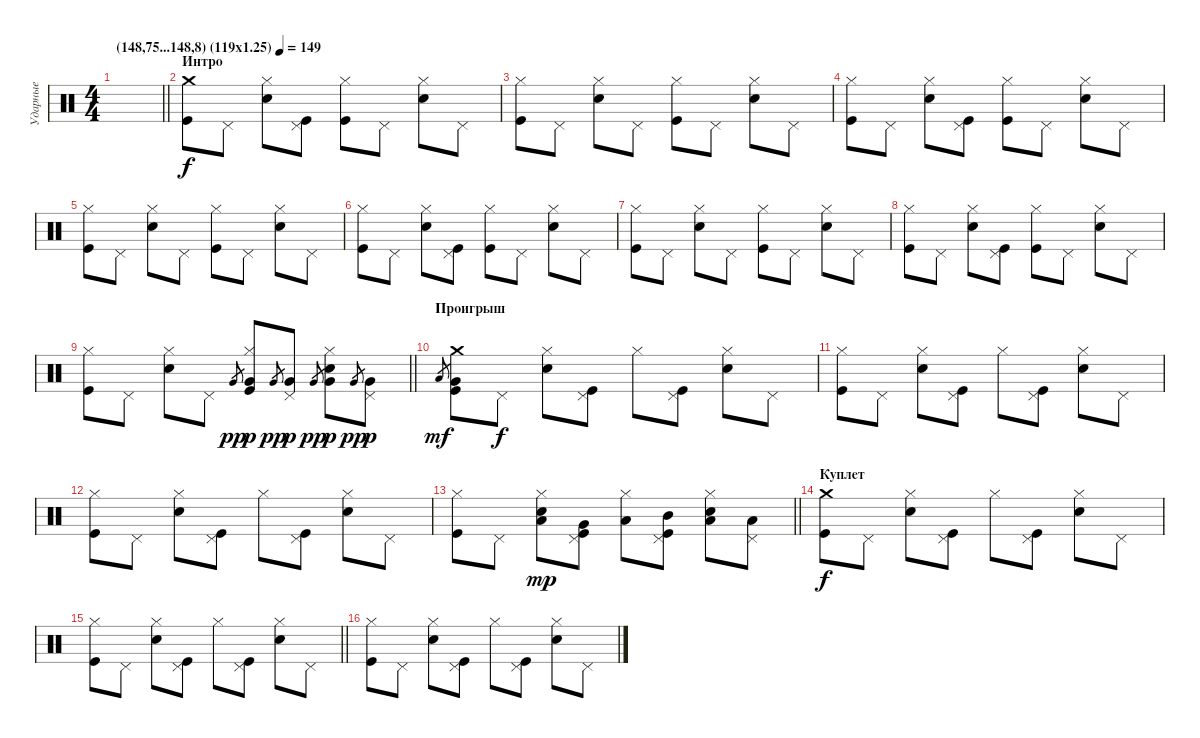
\track ("Ударные" "Ударные") {instrument percussion}
\staff {score}
\articulation defaults
\ts (4 4)
\tempo (149 "(148,75...148,8) (119x1.25)")
\clef neutral
\barLineRight lightlight
\ks c
|
\section ("" "Интро")
("Crash medium (hit)" "Kick (hit)").8 "Pedal Hi-Hat (hit)".8 ("Hi-Hat (closed)" "Snare (hit) 2").8 ("Pedal Hi-Hat (hit)" "Kick (hit)").8 ("Hi-Hat (closed)" "Kick (hit)").8 "Pedal Hi-Hat (hit)".8 ("Hi-Hat (closed)" "Snare (hit) 2").8 "Pedal Hi-Hat (hit)".8 |
("Hi-Hat (closed)" "Kick (hit)").8 "Pedal Hi-Hat (hit)".8 ("Hi-Hat (closed)" "Snare (hit) 2").8 "Pedal Hi-Hat (hit)".8 ("Hi-Hat (closed)" "Kick (hit)").8 "Pedal Hi-Hat (hit)".8 ("Hi-Hat (closed)" "Snare (hit) 2").8 "Pedal Hi-Hat (hit)".8 |
("Hi-Hat (closed)" "Kick (hit)").8 "Pedal Hi-Hat (hit)".8 ("Hi-Hat (closed)" "Snare (hit) 2").8 ("Pedal Hi-Hat (hit)" "Kick (hit)").8 ("Hi-Hat (closed)" "Kick (hit)").8 "Pedal Hi-Hat (hit)".8 ("Hi-Hat (closed)" "Snare (hit) 2").8 "Pedal Hi-Hat (hit)".8 |
("Hi-Hat (closed)" "Kick (hit)").8 "Pedal Hi-Hat (hit)".8 ("Hi-Hat (closed)" "Snare (hit) 2").8 "Pedal Hi-Hat (hit)".8 ("Hi-Hat (closed)" "Kick (hit)").8 "Pedal Hi-Hat (hit)".8 ("Hi-Hat (closed)" "Snare (hit) 2").8 "Pedal Hi-Hat (hit)".8 |
("Hi-Hat (closed)" "Kick (hit)").8 "Pedal Hi-Hat (hit)".8 ("Hi-Hat (closed)" "Snare (hit) 2").8 ("Pedal Hi-Hat (hit)" "Kick (hit)").8 ("Hi-Hat (closed)" "Kick (hit)").8 "Pedal Hi-Hat (hit)".8 ("Hi-Hat (closed)" "Snare (hit) 2").8 "Pedal Hi-Hat (hit)".8 |
("Hi-Hat (closed)" "Kick (hit)").8 "Pedal Hi-Hat (hit)".8 ("Hi-Hat (closed)" "Snare (hit) 2").8 "Pedal Hi-Hat (hit)".8 ("Hi-Hat (closed)" "Kick (hit)").8 "Pedal Hi-Hat (hit)".8 ("Hi-Hat (closed)" "Snare (hit) 2").8 "Pedal Hi-Hat (hit)".8 |
("Hi-Hat (closed)" "Kick (hit)").8 "Pedal Hi-Hat (hit)".8 ("Hi-Hat (closed)" "Snare (hit) 2").8 ("Pedal Hi-Hat (hit)" "Kick (hit)").8 ("Hi-Hat (closed)" "Kick (hit)").8 "Pedal Hi-Hat (hit)".8 ("Hi-Hat (closed)" "Snare (hit) 2").8 "Pedal Hi-Hat (hit)".8 |
\barLineRight lightlight
("Hi-Hat (closed)" "Kick (hit)").8 "Pedal Hi-Hat (hit)".8 ("Hi-Hat (closed)" "Snare (hit) 2").8 "Pedal Hi-Hat (hit)".8 "Very Low Tom (hit)".8{gr dy pp} ("Hi-Hat (closed)" "Kick (hit)" "Very Low Tom (hit)").8{dy p} "Very Low Tom (hit)".8{gr dy pp} ("Pedal Hi-Hat (hit)" "Very Low Tom (hit)").8{dy p} "Very Low Tom (hit)".8{gr dy pp} ("Hi-Hat (closed)" "Snare (hit) 2" "Very Low Tom (hit)").8{dy p} "Very Low Tom (hit)".8{gr dy pp} ("Pedal Hi-Hat (hit)" "Very Low Tom (hit)").8{dy p} |
\section ("" "Проигрыш")
"Low Tom (hit)".8{gr dy mf} ("Crash medium (hit)" "Kick (hit)" "Very Low Tom (hit)").8 "Pedal Hi-Hat (hit)".8{dy f} ("Hi-Hat (closed)" "Snare (hit) 2").8 ("Pedal Hi-Hat (hit)" "Kick (hit)").8 "Hi-Hat (closed)".8 ("Pedal Hi-Hat (hit)" "Kick (hit)").8 ("Hi-Hat (closed)" "Snare (hit) 2").8 "Pedal Hi-Hat (hit)".8 |
("Hi-Hat (closed)" "Kick (hit)").8 "Pedal Hi-Hat (hit)".8 ("Hi-Hat (closed)" "Snare (hit) 2").8 ("Pedal Hi-Hat (hit)" "Kick (hit)").8 "Hi-Hat (closed)".8 ("Pedal Hi-Hat (hit)" "Kick (hit)").8 ("Hi-Hat (closed)" "Snare (hit) 2").8 "Pedal Hi-Hat (hit)".8 |
("Hi-Hat (closed)" "Kick (hit)").8 "Pedal Hi-Hat (hit)".8 ("Hi-Hat (closed)" "Snare (hit) 2").8 ("Pedal Hi-Hat (hit)" "Kick (hit)").8 "Hi-Hat (closed)".8 ("Pedal Hi-Hat (hit)" "Kick (hit)").8 ("Hi-Hat (closed)" "Snare (hit) 2").8 "Pedal Hi-Hat (hit)".8 |
\barLineRight lightlight
("Hi-Hat (closed)" "Kick (hit)").8 "Pedal Hi-Hat (hit)".8 ("Hi-Hat (closed)" "Snare (hit) 2" "Low Floor Tom (hit)").8{dy mp} ("Pedal Hi-Hat (hit)" "Kick (hit)" "Very Low Tom (hit)").8 ("Hi-Hat (closed)" "Low Floor Tom (hit)").8 ("Pedal Hi-Hat (hit)" "Kick (hit)" "Mid Tom (hit)").8 ("Hi-Hat (closed)" "Snare (hit) 2" "Low Floor Tom (hit)").8 ("Pedal Hi-Hat (hit)" "Low Tom (hit)").8 |
\section ("" "Куплет")
("Crash medium (hit)" "Kick (hit)").8{dy f} "Pedal Hi-Hat (hit)".8 ("Hi-Hat (closed)" "Snare (hit) 2").8 ("Pedal Hi-Hat (hit)" "Kick (hit)").8 "Hi-Hat (closed)".8 ("Pedal Hi-Hat (hit)" "Kick (hit)").8 ("Hi-Hat (closed)" "Snare (hit) 2").8 "Pedal Hi-Hat (hit)".8 |
\barLineRight lightlight
("Hi-Hat (closed)" "Kick (hit)").8 "Pedal Hi-Hat (hit)".8 ("Hi-Hat (closed)" "Snare (hit) 2").8 ("Pedal Hi-Hat (hit)" "Kick (hit)").8 "Hi-Hat (closed)".8 ("Pedal Hi-Hat (hit)" "Kick (hit)").8 ("Hi-Hat (closed)" "Snare (hit) 2").8 "Pedal Hi-Hat (hit)".8 |
("Hi-Hat (closed)" "Kick (hit)").8 "Pedal Hi-Hat (hit)".8 ("Hi-Hat (closed)" "Snare (hit) 2").8 ("Pedal Hi-Hat (hit)" "Kick (hit)").8 "Hi-Hat (closed)".8 ("Pedal Hi-Hat (hit)" "Kick (hit)").8 ("Hi-Hat (closed)" "Snare (hit) 2").8 "Pedal Hi-Hat (hit)".8
